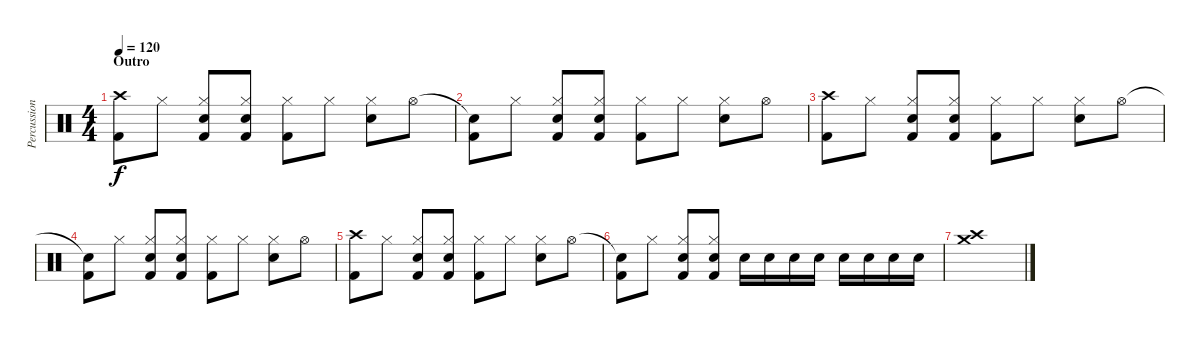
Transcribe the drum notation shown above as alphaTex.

\track ("Percussion" "Percussion") {instrument percussion}
\staff {score}
\articulation defaults
\ts (4 4)
\section ("" "Outro")
\tempo 120
\clef neutral
\ks c
("Crash high (hit)" "Kick (hit) 2").8{dy f} "Hi-Hat (closed)".8 ("Hi-Hat (closed)" "Kick (hit) 2" "Electric Snare (hit)").8 ("Hi-Hat (closed)" "Kick (hit) 2" "Electric Snare (hit)").8 ("Hi-Hat (closed)" "Kick (hit) 2").8 "Hi-Hat (closed)".8 ("Hi-Hat (closed)" "Electric Snare (hit)").8 "Hi-Hat (open)".8 |
("Snare (hit)"{t} "Kick (hit) 2").8 "Hi-Hat (closed)".8 ("Hi-Hat (closed)" "Kick (hit) 2" "Electric Snare (hit)").8 ("Hi-Hat (closed)" "Kick (hit) 2" "Electric Snare (hit)").8 ("Hi-Hat (closed)" "Kick (hit) 2").8 "Hi-Hat (closed)".8 ("Hi-Hat (closed)" "Electric Snare (hit)").8 "Hi-Hat (open)".8 |
("Crash high (hit)" "Kick (hit) 2").8 "Hi-Hat (closed)".8 ("Hi-Hat (closed)" "Kick (hit) 2" "Electric Snare (hit)").8 ("Hi-Hat (closed)" "Kick (hit) 2" "Electric Snare (hit)").8 ("Hi-Hat (closed)" "Kick (hit) 2").8 "Hi-Hat (closed)".8 ("Hi-Hat (closed)" "Electric Snare (hit)").8 "Hi-Hat (open)".8 |
("Snare (hit)"{t} "Kick (hit) 2").8 "Hi-Hat (closed)".8 ("Hi-Hat (closed)" "Kick (hit) 2" "Electric Snare (hit)").8 ("Hi-Hat (closed)" "Kick (hit) 2" "Electric Snare (hit)").8 ("Hi-Hat (closed)" "Kick (hit) 2").8 "Hi-Hat (closed)".8 ("Hi-Hat (closed)" "Electric Snare (hit)").8 "Hi-Hat (open)".8 |
("Crash high (hit)" "Kick (hit) 2").8 "Hi-Hat (closed)".8 ("Hi-Hat (closed)" "Kick (hit) 2" "Electric Snare (hit)").8 ("Hi-Hat (closed)" "Kick (hit) 2" "Electric Snare (hit)").8 ("Hi-Hat (closed)" "Kick (hit) 2").8 "Hi-Hat (closed)".8 ("Hi-Hat (closed)" "Electric Snare (hit)").8 "Hi-Hat (open)".8 |
("Snare (hit)"{t} "Kick (hit) 2").8 "Hi-Hat (closed)".8 ("Hi-Hat (closed)" "Kick (hit) 2" "Electric Snare (hit)").8 ("Hi-Hat (closed)" "Kick (hit) 2" "Electric Snare (hit)").8 "Electric Snare (hit)".16 "Electric Snare (hit)".16 "Electric Snare (hit)".16 "Electric Snare (hit)".16 "Electric Snare (hit)".16 "Electric Snare (hit)".16 "Electric Snare (hit)".16 "Electric Snare (hit)".16 |
("Crash high (hit)" "Crash medium (hit)").1
